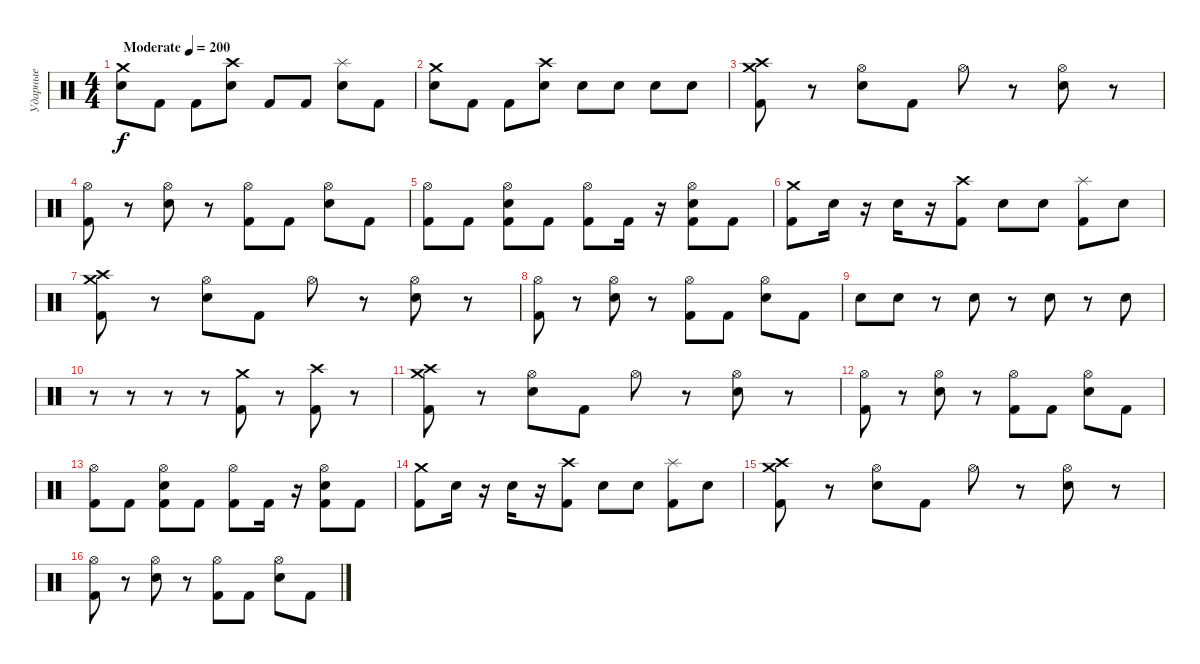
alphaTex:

\track ("Ударные" "Ударные") {instrument percussion}
\staff {score}
\articulation defaults
\ts (4 4)
\tempo (200 "Moderate")
\clef neutral
\ks c
("Electric Snare (hit)" "Crash medium (hit)").8{dy f} "Kick (hit) 2".8 "Kick (hit) 2".8 ("Electric Snare (hit)" "Crash high (hit)").8 "Kick (hit) 2".8 "Kick (hit) 2".8 ("Electric Snare (hit)" "Splash (hit)").8 "Kick (hit) 2".8 |
("Electric Snare (hit)" "Crash medium (hit)").8 "Kick (hit) 2".8 "Kick (hit) 2".8 ("Electric Snare (hit)" "Crash high (hit)").8 "Electric Snare (hit)".8 "Electric Snare (hit)".8 "Electric Snare (hit)".8 "Electric Snare (hit)".8 |
("Kick (hit) 2" "Crash high (hit)" "Crash medium (hit)").8 r.8 ("Electric Snare (hit)" "Hi-Hat (open)").8 "Kick (hit) 2".8 "Hi-Hat (open)".8 r.8 ("Electric Snare (hit)" "Hi-Hat (open)").8 r.8 |
("Kick (hit) 2" "Hi-Hat (open)").8 r.8 ("Electric Snare (hit)" "Hi-Hat (open)").8 r.8 ("Kick (hit) 2" "Hi-Hat (open)").8 "Kick (hit) 2".8 ("Electric Snare (hit)" "Hi-Hat (open)").8 "Kick (hit) 2".8 |
("Kick (hit) 2" "Hi-Hat (open)").8 "Kick (hit) 2".8 ("Kick (hit) 2" "Electric Snare (hit)" "Hi-Hat (open)").8 "Kick (hit) 2".8 ("Kick (hit) 2" "Hi-Hat (open)").8 "Kick (hit) 2".16 r.16 ("Kick (hit) 2" "Electric Snare (hit)" "Hi-Hat (open)").8 "Kick (hit) 2".8 |
("Kick (hit) 2" "Crash medium (hit)").8 "Electric Snare (hit)".16 r.16 "Electric Snare (hit)".16 r.16 ("Kick (hit) 2" "Crash high (hit)").8 "Electric Snare (hit)".8 "Electric Snare (hit)".8 ("Kick (hit) 2" "Splash (hit)").8 "Electric Snare (hit)".8 |
("Kick (hit) 2" "Crash high (hit)" "Crash medium (hit)").8 r.8 ("Electric Snare (hit)" "Hi-Hat (open)").8 "Kick (hit) 2".8 "Hi-Hat (open)".8 r.8 ("Electric Snare (hit)" "Hi-Hat (open)").8 r.8 |
("Kick (hit) 2" "Hi-Hat (open)").8 r.8 ("Electric Snare (hit)" "Hi-Hat (open)").8 r.8 ("Kick (hit) 2" "Hi-Hat (open)").8 "Kick (hit) 2".8 ("Electric Snare (hit)" "Hi-Hat (open)").8 "Kick (hit) 2".8 |
"Electric Snare (hit)".8 "Electric Snare (hit)".8 r.8 "Electric Snare (hit)".8 r.8 "Electric Snare (hit)".8 r.8 "Electric Snare (hit)".8 |
r.8 r.8 r.8 r.8 ("Kick (hit) 2" "Crash medium (hit)").8 r.8 ("Kick (hit) 2" "Crash high (hit)").8 r.8 |
("Kick (hit) 2" "Crash high (hit)" "Crash medium (hit)").8 r.8 ("Electric Snare (hit)" "Hi-Hat (open)").8 "Kick (hit) 2".8 "Hi-Hat (open)".8 r.8 ("Electric Snare (hit)" "Hi-Hat (open)").8 r.8 |
("Kick (hit) 2" "Hi-Hat (open)").8 r.8 ("Electric Snare (hit)" "Hi-Hat (open)").8 r.8 ("Kick (hit) 2" "Hi-Hat (open)").8 "Kick (hit) 2".8 ("Electric Snare (hit)" "Hi-Hat (open)").8 "Kick (hit) 2".8 |
("Kick (hit) 2" "Hi-Hat (open)").8 "Kick (hit) 2".8 ("Kick (hit) 2" "Electric Snare (hit)" "Hi-Hat (open)").8 "Kick (hit) 2".8 ("Kick (hit) 2" "Hi-Hat (open)").8 "Kick (hit) 2".16 r.16 ("Kick (hit) 2" "Electric Snare (hit)" "Hi-Hat (open)").8 "Kick (hit) 2".8 |
("Kick (hit) 2" "Crash medium (hit)").8 "Electric Snare (hit)".16 r.16 "Electric Snare (hit)".16 r.16 ("Kick (hit) 2" "Crash high (hit)").8 "Electric Snare (hit)".8 "Electric Snare (hit)".8 ("Kick (hit) 2" "Splash (hit)").8 "Electric Snare (hit)".8 |
("Kick (hit) 2" "Crash high (hit)" "Crash medium (hit)").8 r.8 ("Electric Snare (hit)" "Hi-Hat (open)").8 "Kick (hit) 2".8 "Hi-Hat (open)".8 r.8 ("Electric Snare (hit)" "Hi-Hat (open)").8 r.8 |
("Kick (hit) 2" "Hi-Hat (open)").8 r.8 ("Electric Snare (hit)" "Hi-Hat (open)").8 r.8 ("Kick (hit) 2" "Hi-Hat (open)").8 "Kick (hit) 2".8 ("Electric Snare (hit)" "Hi-Hat (open)").8 "Kick (hit) 2".8
